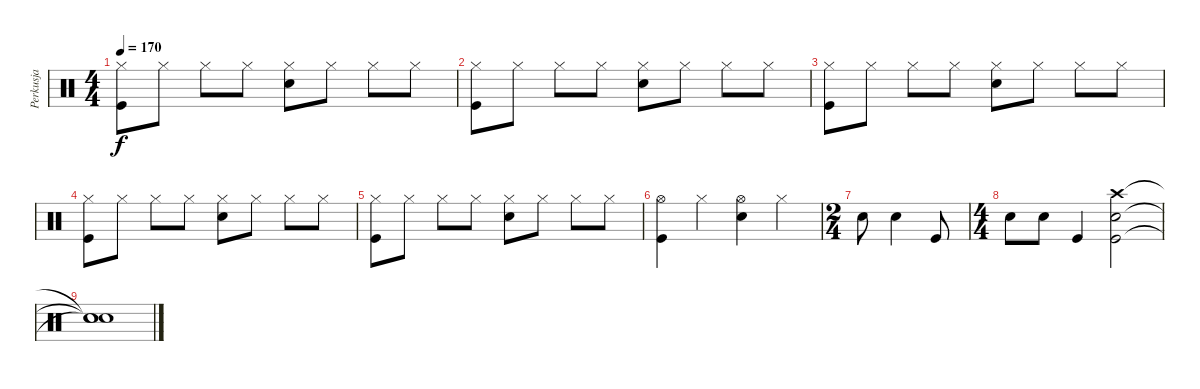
\track ("Perkusja" "Perkusja") {instrument percussion}
\staff {score}
\articulation defaults
\ts (4 4)
\tempo 170
\clef neutral
\ks c
("Hi-Hat (closed)" "Kick (hit)").8{dy f} "Hi-Hat (closed)".8 "Hi-Hat (closed)".8 "Hi-Hat (closed)".8 ("Hi-Hat (closed)" "Electric Snare (hit)").8 "Hi-Hat (closed)".8 "Hi-Hat (closed)".8 "Hi-Hat (closed)".8 |
("Hi-Hat (closed)" "Kick (hit)").8 "Hi-Hat (closed)".8 "Hi-Hat (closed)".8 "Hi-Hat (closed)".8 ("Hi-Hat (closed)" "Electric Snare (hit)").8 "Hi-Hat (closed)".8 "Hi-Hat (closed)".8 "Hi-Hat (closed)".8 |
("Hi-Hat (closed)" "Kick (hit)").8 "Hi-Hat (closed)".8 "Hi-Hat (closed)".8 "Hi-Hat (closed)".8 ("Hi-Hat (closed)" "Electric Snare (hit)").8 "Hi-Hat (closed)".8 "Hi-Hat (closed)".8 "Hi-Hat (closed)".8 |
("Hi-Hat (closed)" "Kick (hit)").8 "Hi-Hat (closed)".8 "Hi-Hat (closed)".8 "Hi-Hat (closed)".8 ("Hi-Hat (closed)" "Electric Snare (hit)").8 "Hi-Hat (closed)".8 "Hi-Hat (closed)".8 "Hi-Hat (closed)".8 |
("Hi-Hat (closed)" "Kick (hit)").8 "Hi-Hat (closed)".8 "Hi-Hat (closed)".8 "Hi-Hat (closed)".8 ("Hi-Hat (closed)" "Electric Snare (hit)").8 "Hi-Hat (closed)".8 "Hi-Hat (closed)".8 "Hi-Hat (closed)".8 |
("Hi-Hat (open)" "Kick (hit)").4 "Hi-Hat (closed)".4 ("Hi-Hat (open)" "Electric Snare (hit)").4 "Hi-Hat (closed)".4 |
\ts (2 4)
"Electric Snare (hit)".8 "Electric Snare (hit)".4 "Kick (hit)".8 |
\ts (4 4)
"Electric Snare (hit)".8 "Electric Snare (hit)".8 "Kick (hit)".4 ("Crash high (hit)" "Electric Snare (hit)" "Kick (hit)").2 |
("Snare (hit)"{t} "Snare (hit)"{t} "Snare (hit)"{t}).1
